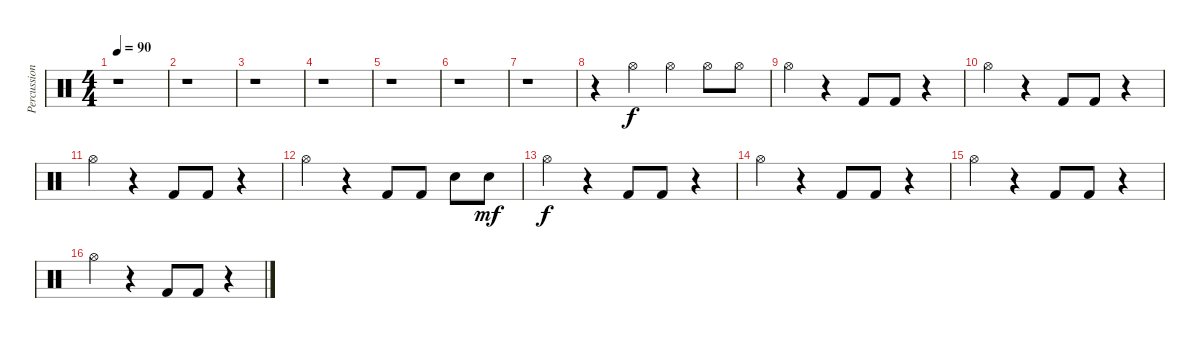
\track ("Percussioni" "Percussion") {instrument percussion}
\staff {score}
\articulation defaults
\ts (4 4)
\tempo 90
\clef neutral
\ks c
r.1{dy f} |
r.1 |
r.1 |
r.1 |
r.1 |
r.1 |
r.1 |
r.4 "Hi-Hat (open)".4 "Hi-Hat (open)".4 "Hi-Hat (open)".8 "Hi-Hat (open)".8 |
"Hi-Hat (open)".4 r.4 "Kick (hit) 2".8 "Kick (hit) 2".8 r.4 |
"Hi-Hat (open)".4 r.4 "Kick (hit) 2".8 "Kick (hit) 2".8 r.4 |
"Hi-Hat (open)".4 r.4 "Kick (hit) 2".8 "Kick (hit) 2".8 r.4 |
"Hi-Hat (open)".4 r.4 "Kick (hit) 2".8 "Kick (hit) 2".8 "Electric Snare (hit)".8 "Electric Snare (hit)".8{dy mf} |
"Hi-Hat (open)".4{dy f} r.4 "Kick (hit) 2".8 "Kick (hit) 2".8 r.4 |
"Hi-Hat (open)".4 r.4 "Kick (hit) 2".8 "Kick (hit) 2".8 r.4 |
"Hi-Hat (open)".4 r.4 "Kick (hit) 2".8 "Kick (hit) 2".8 r.4 |
"Hi-Hat (open)".4 r.4 "Kick (hit) 2".8 "Kick (hit) 2".8 r.4
